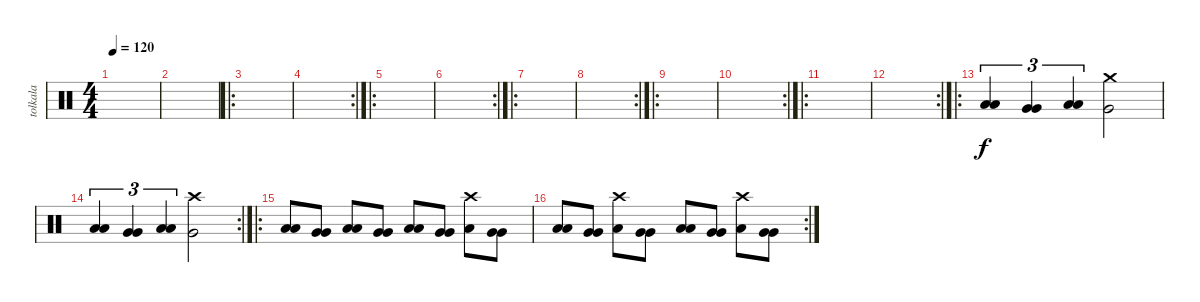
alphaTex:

\track ("tolkala" "tolkala") {instrument percussion}
\staff {score}
\articulation defaults
\ts (4 4)
\tempo 120
\clef neutral
\ks c
|
|
\ro
|
\rc 2
|
\ro
|
\rc 2
|
\ro
|
\rc 2
|
\ro
|
\rc 2
|
\ro
|
\rc 2
|
\ro
("Low Tom (hit)" "Low Tom (hit)").4{tu (3 2)} ("Very Low Tom (hit)" "Very Low Tom (hit)").4{tu (3 2)} ("Low Tom (hit)" "Low Tom (hit)").4{tu (3 2)} ("Crash medium (hit)" "Very Low Tom (hit)").2 |
\rc 2
("Low Tom (hit)" "Low Tom (hit)").4{tu (3 2)} ("Very Low Tom (hit)" "Very Low Tom (hit)").4{tu (3 2)} ("Low Tom (hit)" "Low Tom (hit)").4{tu (3 2)} ("Crash high (hit)" "Very Low Tom (hit)").2 |
\ro
("Low Tom (hit)" "Low Tom (hit)").8 ("Very Low Tom (hit)" "Very Low Tom (hit)").8 ("Low Tom (hit)" "Low Tom (hit)").8 ("Very Low Tom (hit)" "Very Low Tom (hit)").8 ("Low Tom (hit)" "Low Tom (hit)").8 ("Very Low Tom (hit)" "Very Low Tom (hit)").8 ("Crash high (hit)" "Low Tom (hit)").8 ("Very Low Tom (hit)" "Very Low Tom (hit)").8 |
\rc 2
("Low Tom (hit)" "Low Tom (hit)").8 ("Very Low Tom (hit)" "Very Low Tom (hit)").8 ("Crash high (hit)" "Low Tom (hit)").8 ("Very Low Tom (hit)" "Very Low Tom (hit)").8 ("Low Tom (hit)" "Low Tom (hit)").8 ("Very Low Tom (hit)" "Very Low Tom (hit)").8 ("Crash high (hit)" "Low Tom (hit)").8 ("Very Low Tom (hit)" "Very Low Tom (hit)").8
